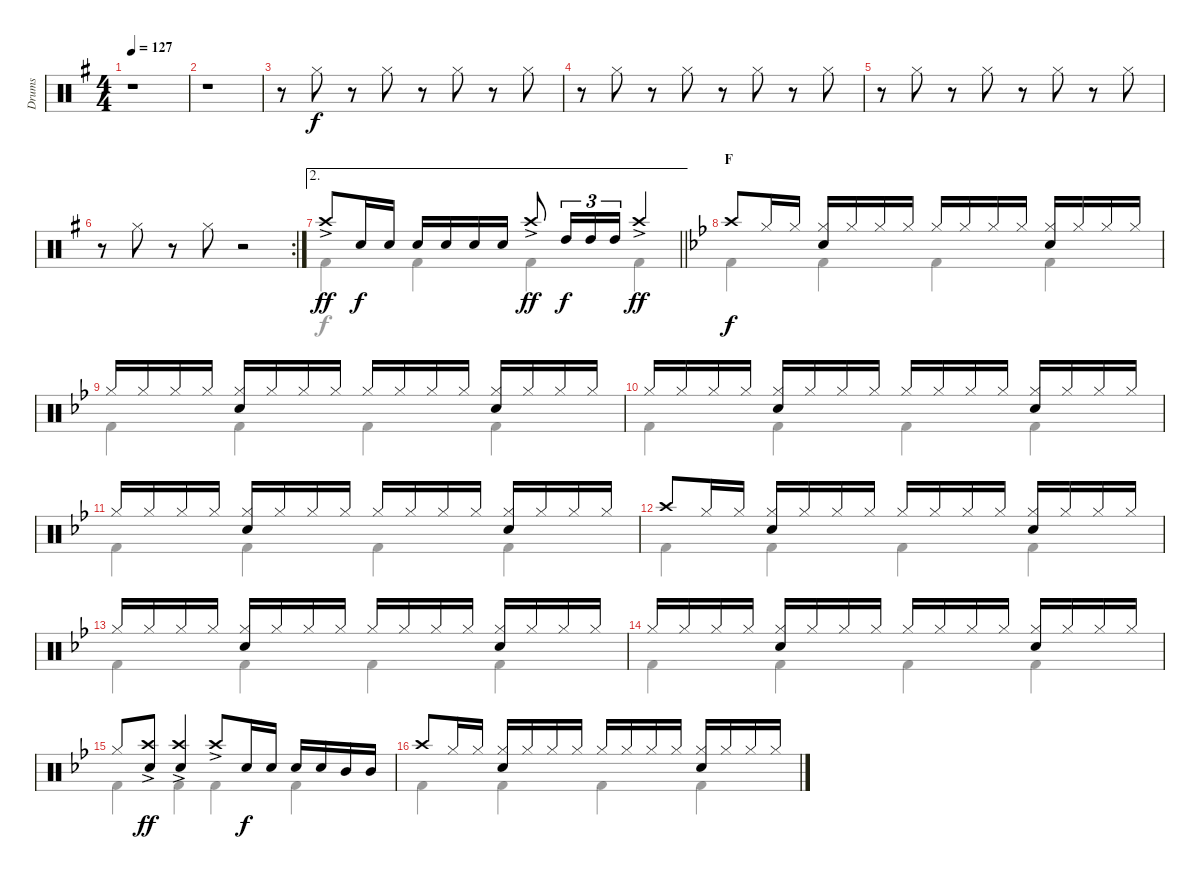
\track ("Drums" "Drums") {instrument percussion}
\staff {score}
\articulation defaults
\voice
\ts (4 4)
\tempo 127
\clef neutral
\ks g
r.1{dy f} |
r.1 |
r.8 "Hi-Hat (closed)".8 r.8 "Hi-Hat (closed)".8 r.8 "Hi-Hat (closed)".8 r.8 "Hi-Hat (closed)".8 |
r.8 "Hi-Hat (closed)".8 r.8 "Hi-Hat (closed)".8 r.8 "Hi-Hat (closed)".8 r.8 "Hi-Hat (closed)".8 |
r.8 "Hi-Hat (closed)".8 r.8 "Hi-Hat (closed)".8 r.8 "Hi-Hat (closed)".8 r.8 "Hi-Hat (closed)".8 |
\rc 2
r.8 "Hi-Hat (closed)".8 r.8 "Hi-Hat (closed)".8 r.2 |
\ae 2
\barLineRight lightlight "Crash high (hit)"{ac}.8{dy ff} "Snare (hit) 2".16{dy f} "Snare (hit) 2".16 "Snare (hit) 2".16 "Snare (hit) 2".16 "Snare (hit) 2".16 "Snare (hit) 2".16 "Crash high (hit)"{ac}.8{dy ff} "High Tom (hit)".16{tu (3 2) dy f} "High Tom (hit)".16{tu (3 2)} "High Tom (hit)".16{tu (3 2)} "Crash high (hit)"{ac}.4{dy ff}
|
\section ("" "F")
\ks bb "Crash high (hit)".8{dy f} "Hi-Hat (closed)".16 "Hi-Hat (closed)".16
("Hi-Hat (closed)" "Snare (hit) 2").16 "Hi-Hat (closed)".16 "Hi-Hat (closed)".16 "Hi-Hat (closed)".16 "Hi-Hat (closed)".16 "Hi-Hat (closed)".16 "Hi-Hat (closed)".16 "Hi-Hat (closed)".16 ("Hi-Hat (closed)" "Snare (hit) 2").16 "Hi-Hat (closed)".16 "Hi-Hat (closed)".16 "Hi-Hat (closed)".16 |
"Hi-Hat (closed)".16 "Hi-Hat (closed)".16 "Hi-Hat (closed)".16 "Hi-Hat (closed)".16 ("Hi-Hat (closed)" "Snare (hit) 2").16 "Hi-Hat (closed)".16 "Hi-Hat (closed)".16 "Hi-Hat (closed)".16 "Hi-Hat (closed)".16 "Hi-Hat (closed)".16 "Hi-Hat (closed)".16 "Hi-Hat (closed)".16 ("Hi-Hat (closed)" "Snare (hit) 2").16 "Hi-Hat (closed)".16 "Hi-Hat (closed)".16 "Hi-Hat (closed)".16 |
"Hi-Hat (closed)".16 "Hi-Hat (closed)".16 "Hi-Hat (closed)".16 "Hi-Hat (closed)".16 ("Hi-Hat (closed)" "Snare (hit) 2").16 "Hi-Hat (closed)".16 "Hi-Hat (closed)".16 "Hi-Hat (closed)".16 "Hi-Hat (closed)".16 "Hi-Hat (closed)".16 "Hi-Hat (closed)".16 "Hi-Hat (closed)".16 ("Hi-Hat (closed)" "Snare (hit) 2").16 "Hi-Hat (closed)".16 "Hi-Hat (closed)".16 "Hi-Hat (closed)".16 |
"Hi-Hat (closed)".16 "Hi-Hat (closed)".16 "Hi-Hat (closed)".16 "Hi-Hat (closed)".16 ("Hi-Hat (closed)" "Snare (hit) 2").16 "Hi-Hat (closed)".16 "Hi-Hat (closed)".16 "Hi-Hat (closed)".16 "Hi-Hat (closed)".16 "Hi-Hat (closed)".16 "Hi-Hat (closed)".16 "Hi-Hat (closed)".16 ("Hi-Hat (closed)" "Snare (hit) 2").16 "Hi-Hat (closed)".16 "Hi-Hat (closed)".16 "Hi-Hat (closed)".16 |
"Crash high (hit)".8 "Hi-Hat (closed)".16 "Hi-Hat (closed)".16 ("Hi-Hat (closed)" "Snare (hit) 2").16 "Hi-Hat (closed)".16 "Hi-Hat (closed)".16 "Hi-Hat (closed)".16 "Hi-Hat (closed)".16 "Hi-Hat (closed)".16 "Hi-Hat (closed)".16 "Hi-Hat (closed)".16 ("Hi-Hat (closed)" "Snare (hit) 2").16 "Hi-Hat (closed)".16 "Hi-Hat (closed)".16 "Hi-Hat (closed)".16 |
"Hi-Hat (closed)".16 "Hi-Hat (closed)".16 "Hi-Hat (closed)".16 "Hi-Hat (closed)".16 ("Hi-Hat (closed)" "Snare (hit) 2").16 "Hi-Hat (closed)".16 "Hi-Hat (closed)".16 "Hi-Hat (closed)".16 "Hi-Hat (closed)".16 "Hi-Hat (closed)".16 "Hi-Hat (closed)".16 "Hi-Hat (closed)".16 ("Hi-Hat (closed)" "Snare (hit) 2").16 "Hi-Hat (closed)".16 "Hi-Hat (closed)".16 "Hi-Hat (closed)".16 |
"Hi-Hat (closed)".16 "Hi-Hat (closed)".16 "Hi-Hat (closed)".16 "Hi-Hat (closed)".16 ("Hi-Hat (closed)" "Snare (hit) 2").16 "Hi-Hat (closed)".16 "Hi-Hat (closed)".16 "Hi-Hat (closed)".16 "Hi-Hat (closed)".16 "Hi-Hat (closed)".16 "Hi-Hat (closed)".16 "Hi-Hat (closed)".16 ("Hi-Hat (closed)" "Snare (hit) 2").16 "Hi-Hat (closed)".16 "Hi-Hat (closed)".16 "Hi-Hat (closed)".16 |
"Hi-Hat (closed)".8 ("Crash high (hit)"{ac} "Snare (hit) 2").8{dy ff} ("Crash high (hit)"{ac} "Snare (hit) 2").4 "Crash high (hit)"{ac}.8 "Snare (hit) 2".16{dy f} "Snare (hit) 2".16 "Snare (hit) 2".16 "Snare (hit) 2".16 "Mid Tom (hit)".16 "Mid Tom (hit)".16 |
"Crash high (hit)".8 "Hi-Hat (closed)".16 "Hi-Hat (closed)".16 ("Hi-Hat (closed)" "Snare (hit) 2").16 "Hi-Hat (closed)".16 "Hi-Hat (closed)".16 "Hi-Hat (closed)".16 "Hi-Hat (closed)".16 "Hi-Hat (closed)".16 "Hi-Hat (closed)".16 "Hi-Hat (closed)".16 ("Hi-Hat (closed)" "Snare (hit) 2").16 "Hi-Hat (closed)".16 "Hi-Hat (closed)".16 "Hi-Hat (closed)".16
\voice
\clef neutral
\ottava regular
\simile none
\ks g
|
|
|
|
|
|
\barLineRight lightlight "Kick (hit) 2".4 "Kick (hit) 2".4 "Kick (hit) 2".4 "Kick (hit) 2".4
|
\ks bb "Kick (hit) 2".4 "Kick (hit) 2".4 "Kick (hit) 2".4 "Kick (hit) 2".4
|
"Kick (hit) 2".4 "Kick (hit) 2".4 "Kick (hit) 2".4 "Kick (hit) 2".4 |
"Kick (hit) 2".4 "Kick (hit) 2".4 "Kick (hit) 2".4 "Kick (hit) 2".4 |
"Kick (hit) 2".4 "Kick (hit) 2".4 "Kick (hit) 2".4 "Kick (hit) 2".4 |
"Kick (hit) 2".4 "Kick (hit) 2".4 "Kick (hit) 2".4 "Kick (hit) 2".4 |
"Kick (hit) 2".4 "Kick (hit) 2".4 "Kick (hit) 2".4 "Kick (hit) 2".4 |
"Kick (hit) 2".4 "Kick (hit) 2".4 "Kick (hit) 2".4 "Kick (hit) 2".4 |
"Kick (hit) 2".4 "Kick (hit) 2".4 "Kick (hit) 2".4 "Kick (hit) 2".4 |
"Kick (hit) 2".4 "Kick (hit) 2".4 "Kick (hit) 2".4 "Kick (hit) 2".4
